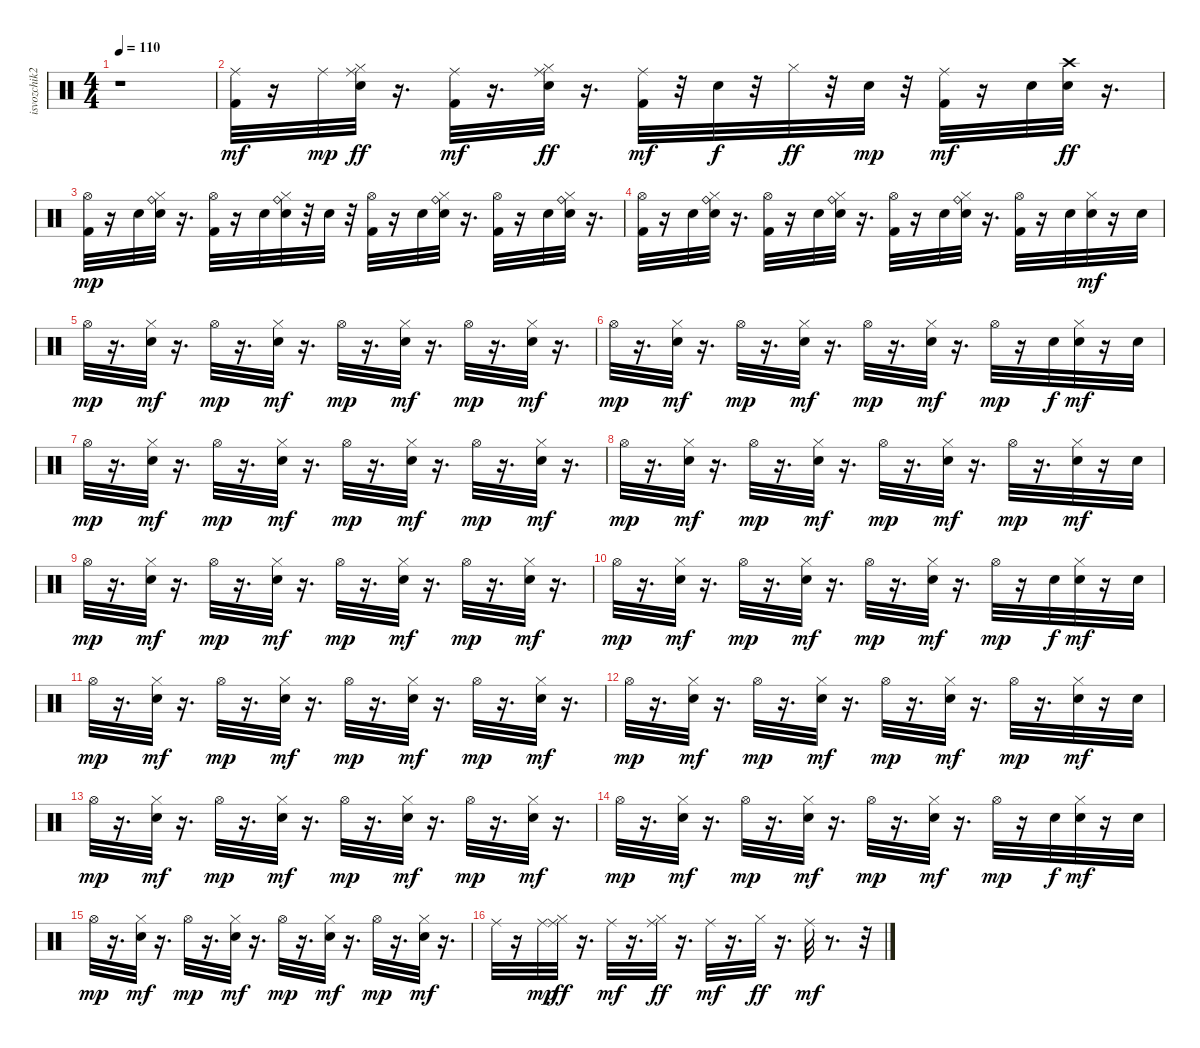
\track ("isvozchik2" "isvozchik2") {instrument percussion}
\staff {score}
\articulation defaults
\ts (4 4)
\tempo 110
\clef neutral
\ks c
r.1{dy mf} |
("Kick (hit) 2" "Ride (middle)").32 r.16 "Ride (middle)".32{dy mp} ("Ride (middle)" "Snare (hit) 2" "Hi-Hat (closed)").32{dy ff} r.16{d} ("Kick (hit) 2" "Ride (middle)").32{dy mf} r.16{d} ("Ride (middle)" "Snare (hit) 2" "Hi-Hat (closed)").32{dy ff} r.16{d} ("Kick (hit) 2" "Ride (middle)").32{dy mf} r.32 "Snare (hit) 2".32{dy f} r.32 "Hi-Hat (closed)".32{dy ff} r.32 "Snare (hit) 2".32{dy mp} r.32 ("Kick (hit) 2" "Ride (middle)").32{dy mf} r.16 "Snare (hit) 2".32 ("Snare (hit) 2" "Crash high (hit)").32{dy ff} r.16{d} |
("Kick (hit) 2" "Hi-Hat (open)").32{dy mp} r.16 "Snare (hit) 2".32 ("Hand Clap (hit)" "Hi-Hat (closed)" "Ride (bell)").32 r.16{d} ("Kick (hit) 2" "Hi-Hat (open)").32 r.16 "Snare (hit) 2".32 ("Hand Clap (hit)" "Hi-Hat (closed)" "Ride (bell)").32 r.32 "Snare (hit) 2".32 r.32 ("Kick (hit) 2" "Hi-Hat (open)").32 r.16 "Snare (hit) 2".32 ("Hand Clap (hit)" "Hi-Hat (closed)" "Ride (bell)").32 r.16{d} ("Kick (hit) 2" "Hi-Hat (open)").32 r.16 "Snare (hit) 2".32 ("Hand Clap (hit)" "Hi-Hat (closed)" "Ride (bell)").32 r.16{d} |
("Kick (hit) 2" "Hi-Hat (open)").32 r.16 "Snare (hit) 2".32 ("Hand Clap (hit)" "Hi-Hat (closed)" "Ride (bell)").32 r.16{d} ("Kick (hit) 2" "Hi-Hat (open)").32 r.16 "Snare (hit) 2".32 ("Hand Clap (hit)" "Hi-Hat (closed)" "Ride (bell)").32 r.16{d} ("Kick (hit) 2" "Hi-Hat (open)").32 r.16 "Snare (hit) 2".32 ("Hand Clap (hit)" "Hi-Hat (closed)" "Ride (bell)").32 r.16{d} ("Kick (hit) 2" "Hi-Hat (open)").32 r.16 "Snare (hit) 2".32 ("Hand Clap (hit)" "Hi-Hat (closed)").32{dy mf} r.16 "Hand Clap (hit)".32 |
"Hi-Hat (open)".32{dy mp} r.16{d} ("Hand Clap (hit)" "Hi-Hat (closed)").32{dy mf} r.16{d} "Hi-Hat (open)".32{dy mp} r.16{d} ("Hand Clap (hit)" "Hi-Hat (closed)").32{dy mf} r.16{d} "Hi-Hat (open)".32{dy mp} r.16{d} ("Hand Clap (hit)" "Hi-Hat (closed)").32{dy mf} r.16{d} "Hi-Hat (open)".32{dy mp} r.16{d} ("Hand Clap (hit)" "Hi-Hat (closed)").32{dy mf} r.16{d} |
"Hi-Hat (open)".32{dy mp} r.16{d} ("Hand Clap (hit)" "Hi-Hat (closed)").32{dy mf} r.16{d} "Hi-Hat (open)".32{dy mp} r.16{d} ("Hand Clap (hit)" "Hi-Hat (closed)").32{dy mf} r.16{d} "Hi-Hat (open)".32{dy mp} r.16{d} ("Hand Clap (hit)" "Hi-Hat (closed)").32{dy mf} r.16{d} "Hi-Hat (open)".32{dy mp} r.16 "Hand Clap (hit)".32{dy f} ("Hand Clap (hit)" "Hi-Hat (closed)").32{dy mf} r.16 "Hand Clap (hit)".32 |
"Hi-Hat (open)".32{dy mp} r.16{d} ("Hand Clap (hit)" "Hi-Hat (closed)").32{dy mf} r.16{d} "Hi-Hat (open)".32{dy mp} r.16{d} ("Hand Clap (hit)" "Hi-Hat (closed)").32{dy mf} r.16{d} "Hi-Hat (open)".32{dy mp} r.16{d} ("Hand Clap (hit)" "Hi-Hat (closed)").32{dy mf} r.16{d} "Hi-Hat (open)".32{dy mp} r.16{d} ("Hand Clap (hit)" "Hi-Hat (closed)").32{dy mf} r.16{d} |
"Hi-Hat (open)".32{dy mp} r.16{d} ("Hand Clap (hit)" "Hi-Hat (closed)").32{dy mf} r.16{d} "Hi-Hat (open)".32{dy mp} r.16{d} ("Hand Clap (hit)" "Hi-Hat (closed)").32{dy mf} r.16{d} "Hi-Hat (open)".32{dy mp} r.16{d} ("Hand Clap (hit)" "Hi-Hat (closed)").32{dy mf} r.16{d} "Hi-Hat (open)".32{dy mp} r.16{d} ("Hand Clap (hit)" "Hi-Hat (closed)").32{dy mf} r.16 "Hand Clap (hit)".32 |
"Hi-Hat (open)".32{dy mp} r.16{d} ("Hand Clap (hit)" "Hi-Hat (closed)").32{dy mf} r.16{d} "Hi-Hat (open)".32{dy mp} r.16{d} ("Hand Clap (hit)" "Hi-Hat (closed)").32{dy mf} r.16{d} "Hi-Hat (open)".32{dy mp} r.16{d} ("Hand Clap (hit)" "Hi-Hat (closed)").32{dy mf} r.16{d} "Hi-Hat (open)".32{dy mp} r.16{d} ("Hand Clap (hit)" "Hi-Hat (closed)").32{dy mf} r.16{d} |
"Hi-Hat (open)".32{dy mp} r.16{d} ("Hand Clap (hit)" "Hi-Hat (closed)").32{dy mf} r.16{d} "Hi-Hat (open)".32{dy mp} r.16{d} ("Hand Clap (hit)" "Hi-Hat (closed)").32{dy mf} r.16{d} "Hi-Hat (open)".32{dy mp} r.16{d} ("Hand Clap (hit)" "Hi-Hat (closed)").32{dy mf} r.16{d} "Hi-Hat (open)".32{dy mp} r.16 "Hand Clap (hit)".32{dy f} ("Hand Clap (hit)" "Hi-Hat (closed)").32{dy mf} r.16 "Hand Clap (hit)".32 |
"Hi-Hat (open)".32{dy mp} r.16{d} ("Hand Clap (hit)" "Hi-Hat (closed)").32{dy mf} r.16{d} "Hi-Hat (open)".32{dy mp} r.16{d} ("Hand Clap (hit)" "Hi-Hat (closed)").32{dy mf} r.16{d} "Hi-Hat (open)".32{dy mp} r.16{d} ("Hand Clap (hit)" "Hi-Hat (closed)").32{dy mf} r.16{d} "Hi-Hat (open)".32{dy mp} r.16{d} ("Hand Clap (hit)" "Hi-Hat (closed)").32{dy mf} r.16{d} |
"Hi-Hat (open)".32{dy mp} r.16{d} ("Hand Clap (hit)" "Hi-Hat (closed)").32{dy mf} r.16{d} "Hi-Hat (open)".32{dy mp} r.16{d} ("Hand Clap (hit)" "Hi-Hat (closed)").32{dy mf} r.16{d} "Hi-Hat (open)".32{dy mp} r.16{d} ("Hand Clap (hit)" "Hi-Hat (closed)").32{dy mf} r.16{d} "Hi-Hat (open)".32{dy mp} r.16{d} ("Hand Clap (hit)" "Hi-Hat (closed)").32{dy mf} r.16 "Hand Clap (hit)".32 |
"Hi-Hat (open)".32{dy mp} r.16{d} ("Hand Clap (hit)" "Hi-Hat (closed)").32{dy mf} r.16{d} "Hi-Hat (open)".32{dy mp} r.16{d} ("Hand Clap (hit)" "Hi-Hat (closed)").32{dy mf} r.16{d} "Hi-Hat (open)".32{dy mp} r.16{d} ("Hand Clap (hit)" "Hi-Hat (closed)").32{dy mf} r.16{d} "Hi-Hat (open)".32{dy mp} r.16{d} ("Hand Clap (hit)" "Hi-Hat (closed)").32{dy mf} r.16{d} |
"Hi-Hat (open)".32{dy mp} r.16{d} ("Hand Clap (hit)" "Hi-Hat (closed)").32{dy mf} r.16{d} "Hi-Hat (open)".32{dy mp} r.16{d} ("Hand Clap (hit)" "Hi-Hat (closed)").32{dy mf} r.16{d} "Hi-Hat (open)".32{dy mp} r.16{d} ("Hand Clap (hit)" "Hi-Hat (closed)").32{dy mf} r.16{d} "Hi-Hat (open)".32{dy mp} r.16 "Hand Clap (hit)".32{dy f} ("Hand Clap (hit)" "Hi-Hat (closed)").32{dy mf} r.16 "Hand Clap (hit)".32 |
"Hi-Hat (open)".32{dy mp} r.16{d} ("Hand Clap (hit)" "Hi-Hat (closed)").32{dy mf} r.16{d} "Hi-Hat (open)".32{dy mp} r.16{d} ("Hand Clap (hit)" "Hi-Hat (closed)").32{dy mf} r.16{d} "Hi-Hat (open)".32{dy mp} r.16{d} ("Hand Clap (hit)" "Hi-Hat (closed)").32{dy mf} r.16{d} "Hi-Hat (open)".32{dy mp} r.16{d} ("Hand Clap (hit)" "Hi-Hat (closed)").32{dy mf} r.16{d} |
"Ride (middle)".32 r.16 "Ride (middle)".32{dy mp} ("Ride (middle)" "Hi-Hat (closed)").32{dy ff} r.16{d} "Ride (middle)".32{dy mf} r.16{d} ("Ride (middle)" "Hi-Hat (closed)").32{dy ff} r.16{d} "Ride (middle)".32{dy mf} r.16{d} "Hi-Hat (closed)".32{dy ff} r.16{d} "Ride (middle)".32{dy mf} r.8{d} r.32
